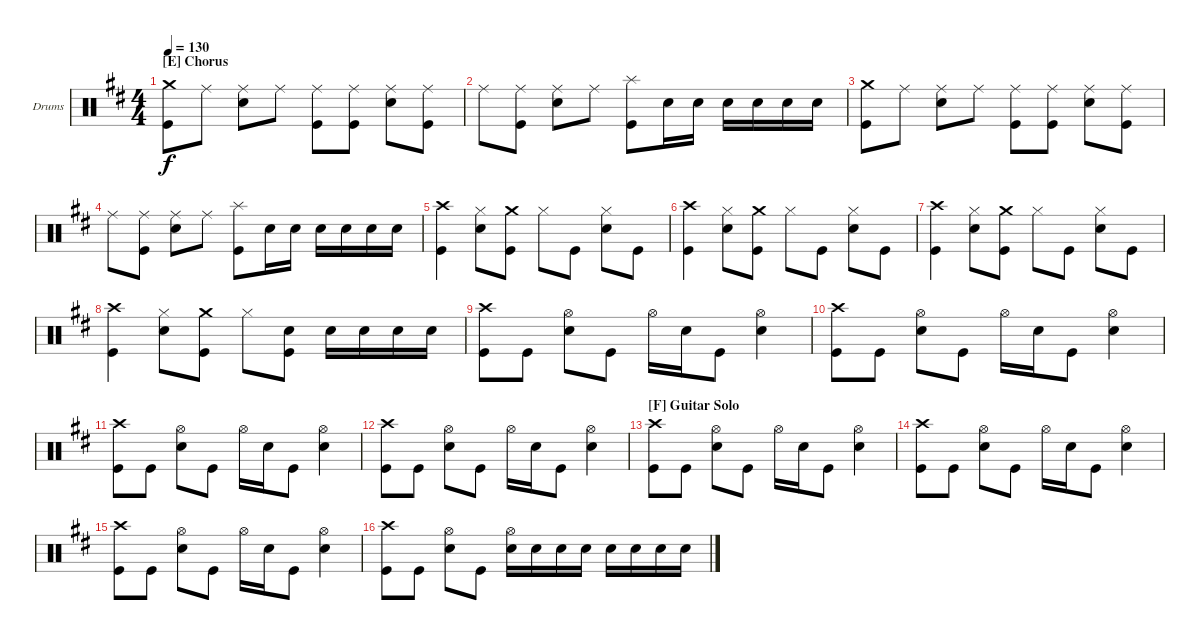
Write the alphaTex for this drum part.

\defaultSystemsLayout 4
\bracketExtendMode groupsimilarinstruments
\firstSystemTrackNameOrientation horizontal
\otherSystemsTrackNameOrientation horizontal
\track ("Drums" "Drums") {instrument percussion}
\staff {score}
\articulation defaults
\ts (4 4)
\section ("E" "Chorus")
\tempo 130
\clef neutral
\scale
1.05044
\ks d
("Crash medium (hit)" "Kick (hit)").8{dy f} "Ride (middle)".8 ("Ride (middle)" "Snare (hit) 2").8 "Ride (middle)".8 ("Ride (middle)" "Kick (hit)").8 ("Ride (middle)" "Kick (hit)").8 ("Ride (middle)" "Snare (hit) 2").8 ("Ride (middle)" "Kick (hit)").8 |
\scale
0.949559 "Ride (middle)".8 ("Ride (middle)" "Kick (hit)").8 ("Ride (middle)" "Snare (hit) 2").8 "Ride (middle)".8 ("Splash (hit)" "Kick (hit)").8 "Snare (hit) 2".16 "Snare (hit) 2".16 "Snare (hit) 2".16 "Snare (hit) 2".16 "Snare (hit) 2".16 "Snare (hit) 2".16 |
\scale
1.05044 ("Crash medium (hit)" "Kick (hit)").8 "Ride (middle)".8 ("Ride (middle)" "Snare (hit) 2").8 "Ride (middle)".8 ("Ride (middle)" "Kick (hit)").8 ("Ride (middle)" "Kick (hit)").8 ("Ride (middle)" "Snare (hit) 2").8 ("Ride (middle)" "Kick (hit)").8 |
\scale
0.949559 "Ride (middle)".8 ("Ride (middle)" "Kick (hit)").8 ("Ride (middle)" "Snare (hit) 2").8 "Ride (middle)".8 ("Splash (hit)" "Kick (hit)").8 "Snare (hit) 2".16 "Snare (hit) 2".16 "Snare (hit) 2".16 "Snare (hit) 2".16 "Snare (hit) 2".16 "Snare (hit) 2".16 |
\scale
1.05044 ("Crash high (hit)" "Kick (hit)").4 ("Hi-Hat (closed)" "Snare (hit) 2").8 ("Crash medium (hit)" "Kick (hit)").8 "Hi-Hat (closed)".8 "Kick (hit)".8 ("Hi-Hat (closed)" "Snare (hit) 2").8 "Kick (hit)".8 |
\scale
0.949559 ("Crash high (hit)" "Kick (hit)").4 ("Hi-Hat (closed)" "Snare (hit) 2").8 ("Crash medium (hit)" "Kick (hit)").8 "Hi-Hat (closed)".8 "Kick (hit)".8 ("Hi-Hat (closed)" "Snare (hit) 2").8 "Kick (hit)".8 |
\scale
1.05044 ("Crash high (hit)" "Kick (hit)").4 ("Hi-Hat (closed)" "Snare (hit) 2").8 ("Crash medium (hit)" "Kick (hit)").8 "Hi-Hat (closed)".8 "Kick (hit)".8 ("Hi-Hat (closed)" "Snare (hit) 2").8 "Kick (hit)".8 |
\scale
0.949559 ("Crash high (hit)" "Kick (hit)").4 ("Hi-Hat (closed)" "Snare (hit) 2").8 ("Crash medium (hit)" "Kick (hit)").8 "Hi-Hat (closed)".8 ("Snare (hit) 2" "Kick (hit)").8 "Snare (hit) 2".16 "Snare (hit) 2".16 "Snare (hit) 2".16 "Snare (hit) 2".16 |
\scale
1.05044 ("Crash high (hit)" "Kick (hit)").8 "Kick (hit)".8 ("Hi-Hat (open)" "Snare (hit) 2").8 "Kick (hit)".8 "Hi-Hat (open)".16 "Snare (hit) 2".16 "Kick (hit)".8 ("Hi-Hat (open)" "Snare (hit) 2").4 |
\scale
0.949559 ("Crash high (hit)" "Kick (hit)").8 "Kick (hit)".8 ("Hi-Hat (open)" "Snare (hit) 2").8 "Kick (hit)".8 "Hi-Hat (open)".16 "Snare (hit) 2".16 "Kick (hit)".8 ("Hi-Hat (open)" "Snare (hit) 2").4 |
\scale
1.05044 ("Crash high (hit)" "Kick (hit)").8 "Kick (hit)".8 ("Hi-Hat (open)" "Snare (hit) 2").8 "Kick (hit)".8 "Hi-Hat (open)".16 "Snare (hit) 2".16 "Kick (hit)".8 ("Hi-Hat (open)" "Snare (hit) 2").4 |
\scale
0.949559 ("Crash high (hit)" "Kick (hit)").8 "Kick (hit)".8 ("Hi-Hat (open)" "Snare (hit) 2").8 "Kick (hit)".8 "Hi-Hat (open)".16 "Snare (hit) 2".16 "Kick (hit)".8 ("Hi-Hat (open)" "Snare (hit) 2").4 |
\section ("F" "Guitar Solo")
\scale
1.05044 ("Crash high (hit)" "Kick (hit)").8 "Kick (hit)".8 ("Hi-Hat (open)" "Snare (hit) 2").8 "Kick (hit)".8 "Hi-Hat (open)".16 "Snare (hit) 2".16 "Kick (hit)".8 ("Hi-Hat (open)" "Snare (hit) 2").4 |
\scale
0.949559 ("Crash high (hit)" "Kick (hit)").8 "Kick (hit)".8 ("Hi-Hat (open)" "Snare (hit) 2").8 "Kick (hit)".8 "Hi-Hat (open)".16 "Snare (hit) 2".16 "Kick (hit)".8 ("Hi-Hat (open)" "Snare (hit) 2").4 |
\scale
1.05044 ("Crash high (hit)" "Kick (hit)").8 "Kick (hit)".8 ("Hi-Hat (open)" "Snare (hit) 2").8 "Kick (hit)".8 "Hi-Hat (open)".16 "Snare (hit) 2".16 "Kick (hit)".8 ("Hi-Hat (open)" "Snare (hit) 2").4 |
\scale
0.949559 ("Crash high (hit)" "Kick (hit)").8 "Kick (hit)".8 ("Hi-Hat (open)" "Snare (hit) 2").8 "Kick (hit)".8 ("Hi-Hat (open)" "Snare (hit) 2").16 "Snare (hit) 2".16 "Snare (hit) 2".16 "Snare (hit) 2".16 "Snare (hit) 2".16 "Snare (hit) 2".16 "Snare (hit) 2".16 "Snare (hit) 2".16
